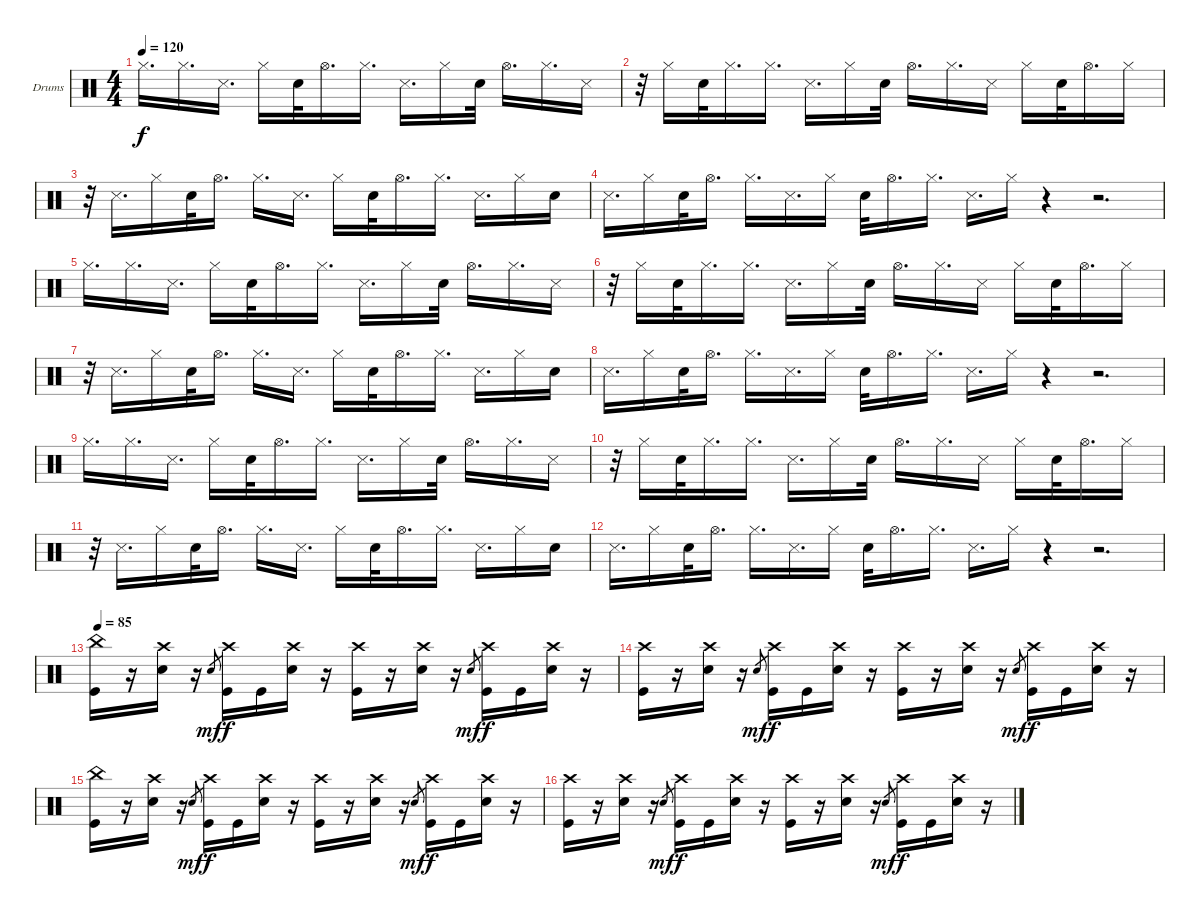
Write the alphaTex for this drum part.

\defaultSystemsLayout 4
\bracketExtendMode groupsimilarinstruments
\firstSystemTrackNameOrientation horizontal
\otherSystemsTrackNameOrientation horizontal
\track ("Drumkit" "Drums") {instrument percussion}
\staff {score}
\articulation defaults
\ts (4 4)
\tempo 120
\clef neutral
\scale
0.333333
\ks c "Hi-Hat (closed)".16{d dy f} "Hi-Hat (closed)".16{d} "Snare (side stick) 3".16{d} "Hi-Hat (closed)".16 "Snare (hit) 2".32 "Hi-Hat (open)".16{d} "Hi-Hat (closed)".16{d} "Snare (side stick) 3".16{d} "Hi-Hat (closed)".16 "Snare (hit) 2".32 "Hi-Hat (open)".16{d} "Hi-Hat (closed)".16{d} "Snare (side stick) 3".16
|
\scale
0.333333 r.32 "Hi-Hat (closed)".16 "Snare (hit) 2".32 "Hi-Hat (closed)".16{d} "Hi-Hat (closed)".16{d} "Snare (side stick) 3".16{d} "Hi-Hat (closed)".16 "Snare (hit) 2".32 "Hi-Hat (open)".16{d} "Hi-Hat (closed)".16{d} "Snare (side stick) 3".16 "Hi-Hat (closed)".16 "Snare (hit) 2".32 "Hi-Hat (open)".16{d} "Hi-Hat (closed)".16 |
\scale
0.333333 r.32 "Snare (side stick) 3".16{d} "Hi-Hat (closed)".16 "Snare (hit) 2".32 "Hi-Hat (open)".16{d} "Hi-Hat (closed)".16{d} "Snare (side stick) 3".16{d} "Hi-Hat (closed)".16 "Snare (hit) 2".32 "Hi-Hat (open)".16{d} "Hi-Hat (closed)".16{d} "Snare (side stick) 3".16{d} "Hi-Hat (closed)".16 "Snare (hit) 2".16 |
\scale
0.333333 "Snare (side stick) 3".16{d} "Hi-Hat (closed)".16 "Snare (hit) 2".32 "Hi-Hat (open)".16{d} "Hi-Hat (closed)".16{d} "Snare (side stick) 3".16{d} "Hi-Hat (closed)".16 "Snare (hit) 2".32 "Hi-Hat (open)".16{d} "Hi-Hat (closed)".16{d} "Snare (side stick) 3".16{d} "Hi-Hat (closed)".16 r.4 r.2{d} |
\scale
0.333333 "Hi-Hat (closed)".16{d} "Hi-Hat (closed)".16{d} "Snare (side stick) 3".16{d} "Hi-Hat (closed)".16 "Snare (hit) 2".32 "Hi-Hat (open)".16{d} "Hi-Hat (closed)".16{d} "Snare (side stick) 3".16{d} "Hi-Hat (closed)".16 "Snare (hit) 2".32 "Hi-Hat (open)".16{d} "Hi-Hat (closed)".16{d} "Snare (side stick) 3".16 |
\scale
0.333333 r.32 "Hi-Hat (closed)".16 "Snare (hit) 2".32 "Hi-Hat (closed)".16{d} "Hi-Hat (closed)".16{d} "Snare (side stick) 3".16{d} "Hi-Hat (closed)".16 "Snare (hit) 2".32 "Hi-Hat (open)".16{d} "Hi-Hat (closed)".16{d} "Snare (side stick) 3".16 "Hi-Hat (closed)".16 "Snare (hit) 2".32 "Hi-Hat (open)".16{d} "Hi-Hat (closed)".16 |
\scale
0.333333 r.32 "Snare (side stick) 3".16{d} "Hi-Hat (closed)".16 "Snare (hit) 2".32 "Hi-Hat (open)".16{d} "Hi-Hat (closed)".16{d} "Snare (side stick) 3".16{d} "Hi-Hat (closed)".16 "Snare (hit) 2".32 "Hi-Hat (open)".16{d} "Hi-Hat (closed)".16{d} "Snare (side stick) 3".16{d} "Hi-Hat (closed)".16 "Snare (hit) 2".16 |
\scale
0.333333 "Snare (side stick) 3".16{d} "Hi-Hat (closed)".16 "Snare (hit) 2".32 "Hi-Hat (open)".16{d} "Hi-Hat (closed)".16{d} "Snare (side stick) 3".16{d} "Hi-Hat (closed)".16 "Snare (hit) 2".32 "Hi-Hat (open)".16{d} "Hi-Hat (closed)".16{d} "Snare (side stick) 3".16{d} "Hi-Hat (closed)".16 r.4 r.2{d} |
\scale
0.333333 "Hi-Hat (closed)".16{d} "Hi-Hat (closed)".16{d} "Snare (side stick) 3".16{d} "Hi-Hat (closed)".16 "Snare (hit) 2".32 "Hi-Hat (open)".16{d} "Hi-Hat (closed)".16{d} "Snare (side stick) 3".16{d} "Hi-Hat (closed)".16 "Snare (hit) 2".32 "Hi-Hat (open)".16{d} "Hi-Hat (closed)".16{d} "Snare (side stick) 3".16 |
\scale
0.333333 r.32 "Hi-Hat (closed)".16 "Snare (hit) 2".32 "Hi-Hat (closed)".16{d} "Hi-Hat (closed)".16{d} "Snare (side stick) 3".16{d} "Hi-Hat (closed)".16 "Snare (hit) 2".32 "Hi-Hat (open)".16{d} "Hi-Hat (closed)".16{d} "Snare (side stick) 3".16 "Hi-Hat (closed)".16 "Snare (hit) 2".32 "Hi-Hat (open)".16{d} "Hi-Hat (closed)".16 |
\scale
0.333333 r.32 "Snare (side stick) 3".16{d} "Hi-Hat (closed)".16 "Snare (hit) 2".32 "Hi-Hat (open)".16{d} "Hi-Hat (closed)".16{d} "Snare (side stick) 3".16{d} "Hi-Hat (closed)".16 "Snare (hit) 2".32 "Hi-Hat (open)".16{d} "Hi-Hat (closed)".16{d} "Snare (side stick) 3".16{d} "Hi-Hat (closed)".16 "Snare (hit) 2".16 |
\scale
0.333333 "Snare (side stick) 3".16{d} "Hi-Hat (closed)".16 "Snare (hit) 2".32 "Hi-Hat (open)".16{d} "Hi-Hat (closed)".16{d} "Snare (side stick) 3".16{d} "Hi-Hat (closed)".16 "Snare (hit) 2".32 "Hi-Hat (open)".16{d} "Hi-Hat (closed)".16{d} "Snare (side stick) 3".16{d} "Hi-Hat (closed)".16 r.4 r.2{d} |
\tempo 85
\scale
0.333333 ("China (hit)" "Kick (hit)").16 r.16 ("Crash high (hit)" "Snare (hit) 2").16 r.16 "Snare (hit) 2".8{gr dy mf} ("Crash high (hit)" "Kick (hit)").16{dy f} "Kick (hit)".16 ("Crash high (hit)" "Snare (hit) 2").16 r.16 ("Crash high (hit)" "Kick (hit)").16 r.16 ("Crash high (hit)" "Snare (hit) 2").16 r.16 "Snare (hit) 2".8{gr dy mf} ("Crash high (hit)" "Kick (hit)").16{dy f} "Kick (hit)".16 ("Crash high (hit)" "Snare (hit) 2").16 r.16 |
\scale
0.333333 ("Crash high (hit)" "Kick (hit)").16 r.16 ("Crash high (hit)" "Snare (hit) 2").16 r.16 "Snare (hit) 2".8{gr dy mf} ("Crash high (hit)" "Kick (hit)").16{dy f} "Kick (hit)".16 ("Crash high (hit)" "Snare (hit) 2").16 r.16 ("Crash high (hit)" "Kick (hit)").16 r.16 ("Crash high (hit)" "Snare (hit) 2").16 r.16 "Snare (hit) 2".8{gr dy mf} ("Crash high (hit)" "Kick (hit)").16{dy f} "Kick (hit)".16 ("Crash high (hit)" "Snare (hit) 2").16 r.16 |
("China (hit)" "Kick (hit)").16 r.16 ("Crash high (hit)" "Snare (hit) 2").16 r.16 "Snare (hit) 2".8{gr dy mf} ("Crash high (hit)" "Kick (hit)").16{dy f} "Kick (hit)".16 ("Crash high (hit)" "Snare (hit) 2").16 r.16 ("Crash high (hit)" "Kick (hit)").16 r.16 ("Crash high (hit)" "Snare (hit) 2").16 r.16 "Snare (hit) 2".8{gr dy mf} ("Crash high (hit)" "Kick (hit)").16{dy f} "Kick (hit)".16 ("Crash high (hit)" "Snare (hit) 2").16 r.16 |
("Crash high (hit)" "Kick (hit)").16 r.16 ("Crash high (hit)" "Snare (hit) 2").16 r.16 "Snare (hit) 2".8{gr dy mf} ("Crash high (hit)" "Kick (hit)").16{dy f} "Kick (hit)".16 ("Crash high (hit)" "Snare (hit) 2").16 r.16 ("Crash high (hit)" "Kick (hit)").16 r.16 ("Crash high (hit)" "Snare (hit) 2").16 r.16 "Snare (hit) 2".8{gr dy mf} ("Crash high (hit)" "Kick (hit)").16{dy f} "Kick (hit)".16 ("Crash high (hit)" "Snare (hit) 2").16 r.16
